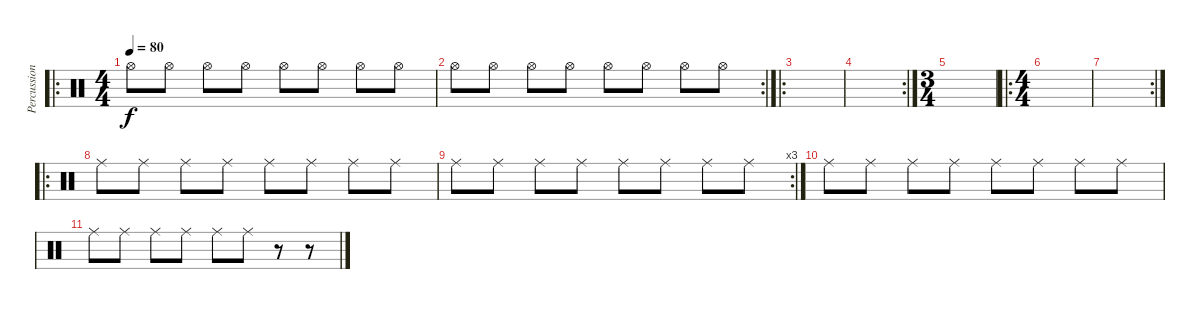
\track ("Percussion" "Percussion") {instrument percussion}
\staff {score}
\articulation defaults
\ro
\ts (4 4)
\tempo 80
\clef neutral
\ks c "Hi-Hat (open)".8{dy f} "Hi-Hat (open)".8 "Hi-Hat (open)".8 "Hi-Hat (open)".8 "Hi-Hat (open)".8 "Hi-Hat (open)".8 "Hi-Hat (open)".8 "Hi-Hat (open)".8
|
\rc 2 "Hi-Hat (open)".8 "Hi-Hat (open)".8 "Hi-Hat (open)".8 "Hi-Hat (open)".8 "Hi-Hat (open)".8 "Hi-Hat (open)".8 "Hi-Hat (open)".8 "Hi-Hat (open)".8
|
\ro
|
\rc 2
|
\ts (3 4)
|
\ro
\ts (4 4)
|
\rc 2
|
\ro "Ride (middle)".8 "Ride (middle)".8 "Ride (middle)".8 "Ride (middle)".8 "Ride (middle)".8 "Ride (middle)".8 "Ride (middle)".8 "Ride (middle)".8
|
\rc 3 "Ride (middle)".8 "Ride (middle)".8 "Ride (middle)".8 "Ride (middle)".8 "Ride (middle)".8 "Ride (middle)".8 "Ride (middle)".8 "Ride (middle)".8
|
"Ride (middle)".8 "Ride (middle)".8 "Ride (middle)".8 "Ride (middle)".8 "Ride (middle)".8 "Ride (middle)".8 "Ride (middle)".8 "Ride (middle)".8 |
"Ride (middle)".8 "Ride (middle)".8 "Ride (middle)".8 "Ride (middle)".8 "Ride (middle)".8 "Ride (middle)".8 r.8 r.8
